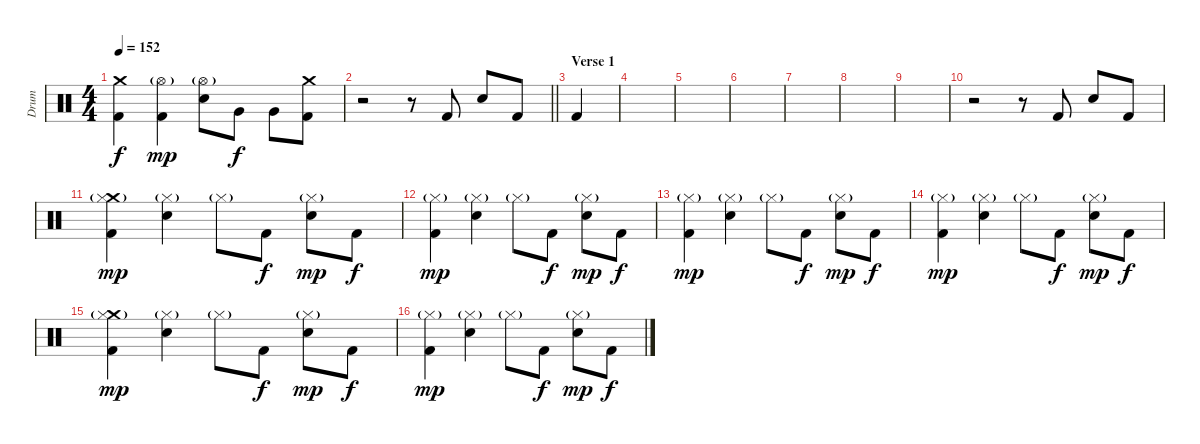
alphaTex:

\track ("Drum" "Drum") {instrument percussion}
\staff {score}
\articulation defaults
\ts (4 4)
\tempo 152
\clef neutral
\ks c
("Crash medium (hit)" "Kick (hit) 2").4{dy f} ("Hi-Hat (open)"{g} "Kick (hit) 2").4{dy mp} ("Hi-Hat (open)"{g} "Electric Snare (hit)").8 "Very Low Tom (hit)".8{dy f} "Very Low Tom (hit)".8 ("Crash medium (hit)" "Kick (hit) 2").8 |
\barLineRight lightlight
r.2 r.8 "Kick (hit) 2".8 "Electric Snare (hit)".8 "Kick (hit) 2".8 |
\section ("" "Verse 1")
"Kick (hit) 2".4 |
|
|
|
|
|
|
r.2 r.8 "Kick (hit) 2".8 "Electric Snare (hit)".8 "Kick (hit) 2".8 |
("Crash medium (hit)" "Hi-Hat (closed)"{g} "Kick (hit) 2").4{dy mp} ("Hi-Hat (closed)"{g} "Electric Snare (hit)").4 "Hi-Hat (closed)"{g}.8 "Kick (hit) 2".8{dy f} ("Hi-Hat (closed)"{g} "Electric Snare (hit)").8{dy mp} "Kick (hit) 2".8{dy f} |
("Hi-Hat (closed)"{g} "Kick (hit) 2").4{dy mp} ("Hi-Hat (closed)"{g} "Electric Snare (hit)").4 "Hi-Hat (closed)"{g}.8 "Kick (hit) 2".8{dy f} ("Hi-Hat (closed)"{g} "Electric Snare (hit)").8{dy mp} "Kick (hit) 2".8{dy f} |
("Hi-Hat (closed)"{g} "Kick (hit) 2").4{dy mp} ("Hi-Hat (closed)"{g} "Electric Snare (hit)").4 "Hi-Hat (closed)"{g}.8 "Kick (hit) 2".8{dy f} ("Hi-Hat (closed)"{g} "Electric Snare (hit)").8{dy mp} "Kick (hit) 2".8{dy f} |
("Hi-Hat (closed)"{g} "Kick (hit) 2").4{dy mp} ("Hi-Hat (closed)"{g} "Electric Snare (hit)").4 "Hi-Hat (closed)"{g}.8 "Kick (hit) 2".8{dy f} ("Hi-Hat (closed)"{g} "Electric Snare (hit)").8{dy mp} "Kick (hit) 2".8{dy f} |
("Crash medium (hit)" "Hi-Hat (closed)"{g} "Kick (hit) 2").4{dy mp} ("Hi-Hat (closed)"{g} "Electric Snare (hit)").4 "Hi-Hat (closed)"{g}.8 "Kick (hit) 2".8{dy f} ("Hi-Hat (closed)"{g} "Electric Snare (hit)").8{dy mp} "Kick (hit) 2".8{dy f} |
("Hi-Hat (closed)"{g} "Kick (hit) 2").4{dy mp} ("Hi-Hat (closed)"{g} "Electric Snare (hit)").4 "Hi-Hat (closed)"{g}.8 "Kick (hit) 2".8{dy f} ("Hi-Hat (closed)"{g} "Electric Snare (hit)").8{dy mp} "Kick (hit) 2".8{dy f}
